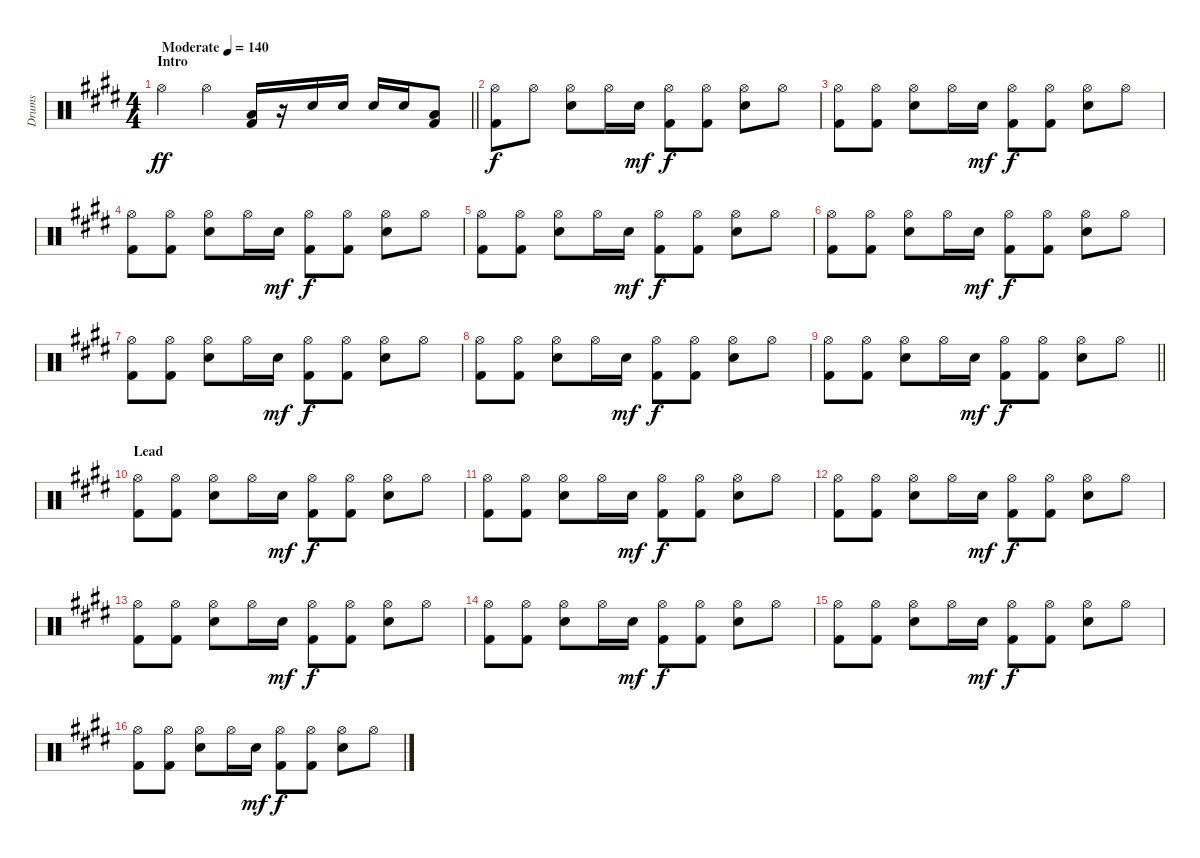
\track ("Drums" "Drums") {instrument percussion}
\staff {score}
\articulation defaults
\ts (4 4)
\section ("" "Intro")
\tempo (140 "Moderate")
\clef neutral
\barLineRight lightlight
\ks c#minor "Hi-Hat (open)".4{dy ff} "Hi-Hat (open)".4
("Low Tom (hit)" "Kick (hit) 2").16 r.16 "Snare (hit) 2".16 "Snare (hit) 2".16 "Snare (hit) 2".16 "Snare (hit) 2".16 ("Low Tom (hit)" "Kick (hit) 2").8 |
("Hi-Hat (open)" "Kick (hit) 2").8{dy f} "Hi-Hat (open)".8 ("Hi-Hat (open)" "Snare (hit) 2").8 "Hi-Hat (open)".16 "Snare (hit) 2".16{dy mf} ("Hi-Hat (open)" "Kick (hit) 2").8{dy f} ("Hi-Hat (open)" "Kick (hit) 2").8 ("Hi-Hat (open)" "Snare (hit) 2").8 "Hi-Hat (open)".8 |
("Hi-Hat (open)" "Kick (hit) 2").8 ("Hi-Hat (open)" "Kick (hit) 2").8 ("Hi-Hat (open)" "Snare (hit) 2").8 "Hi-Hat (open)".16 "Snare (hit) 2".16{dy mf} ("Hi-Hat (open)" "Kick (hit) 2").8{dy f} ("Hi-Hat (open)" "Kick (hit) 2").8 ("Hi-Hat (open)" "Snare (hit) 2").8 "Hi-Hat (open)".8 |
("Hi-Hat (open)" "Kick (hit) 2").8 ("Hi-Hat (open)" "Kick (hit) 2").8 ("Hi-Hat (open)" "Snare (hit) 2").8 "Hi-Hat (open)".16 "Snare (hit) 2".16{dy mf} ("Hi-Hat (open)" "Kick (hit) 2").8{dy f} ("Hi-Hat (open)" "Kick (hit) 2").8 ("Hi-Hat (open)" "Snare (hit) 2").8 "Hi-Hat (open)".8 |
("Hi-Hat (open)" "Kick (hit) 2").8 ("Hi-Hat (open)" "Kick (hit) 2").8 ("Hi-Hat (open)" "Snare (hit) 2").8 "Hi-Hat (open)".16 "Snare (hit) 2".16{dy mf} ("Hi-Hat (open)" "Kick (hit) 2").8{dy f} ("Hi-Hat (open)" "Kick (hit) 2").8 ("Hi-Hat (open)" "Snare (hit) 2").8 "Hi-Hat (open)".8 |
("Hi-Hat (open)" "Kick (hit) 2").8 ("Hi-Hat (open)" "Kick (hit) 2").8 ("Hi-Hat (open)" "Snare (hit) 2").8 "Hi-Hat (open)".16 "Snare (hit) 2".16{dy mf} ("Hi-Hat (open)" "Kick (hit) 2").8{dy f} ("Hi-Hat (open)" "Kick (hit) 2").8 ("Hi-Hat (open)" "Snare (hit) 2").8 "Hi-Hat (open)".8 |
("Hi-Hat (open)" "Kick (hit) 2").8 ("Hi-Hat (open)" "Kick (hit) 2").8 ("Hi-Hat (open)" "Snare (hit) 2").8 "Hi-Hat (open)".16 "Snare (hit) 2".16{dy mf} ("Hi-Hat (open)" "Kick (hit) 2").8{dy f} ("Hi-Hat (open)" "Kick (hit) 2").8 ("Hi-Hat (open)" "Snare (hit) 2").8 "Hi-Hat (open)".8 |
("Hi-Hat (open)" "Kick (hit) 2").8 ("Hi-Hat (open)" "Kick (hit) 2").8 ("Hi-Hat (open)" "Snare (hit) 2").8 "Hi-Hat (open)".16 "Snare (hit) 2".16{dy mf} ("Hi-Hat (open)" "Kick (hit) 2").8{dy f} ("Hi-Hat (open)" "Kick (hit) 2").8 ("Hi-Hat (open)" "Snare (hit) 2").8 "Hi-Hat (open)".8 |
\barLineRight lightlight
("Hi-Hat (open)" "Kick (hit) 2").8 ("Hi-Hat (open)" "Kick (hit) 2").8 ("Hi-Hat (open)" "Snare (hit) 2").8 "Hi-Hat (open)".16 "Snare (hit) 2".16{dy mf} ("Hi-Hat (open)" "Kick (hit) 2").8{dy f} ("Hi-Hat (open)" "Kick (hit) 2").8 ("Hi-Hat (open)" "Snare (hit) 2").8 "Hi-Hat (open)".8 |
\section ("" "Lead")
("Hi-Hat (open)" "Kick (hit) 2").8 ("Hi-Hat (open)" "Kick (hit) 2").8 ("Hi-Hat (open)" "Snare (hit) 2").8 "Hi-Hat (open)".16 "Snare (hit) 2".16{dy mf} ("Hi-Hat (open)" "Kick (hit) 2").8{dy f} ("Hi-Hat (open)" "Kick (hit) 2").8 ("Hi-Hat (open)" "Snare (hit) 2").8 "Hi-Hat (open)".8 |
("Hi-Hat (open)" "Kick (hit) 2").8 ("Hi-Hat (open)" "Kick (hit) 2").8 ("Hi-Hat (open)" "Snare (hit) 2").8 "Hi-Hat (open)".16 "Snare (hit) 2".16{dy mf} ("Hi-Hat (open)" "Kick (hit) 2").8{dy f} ("Hi-Hat (open)" "Kick (hit) 2").8 ("Hi-Hat (open)" "Snare (hit) 2").8 "Hi-Hat (open)".8 |
("Hi-Hat (open)" "Kick (hit) 2").8 ("Hi-Hat (open)" "Kick (hit) 2").8 ("Hi-Hat (open)" "Snare (hit) 2").8 "Hi-Hat (open)".16 "Snare (hit) 2".16{dy mf} ("Hi-Hat (open)" "Kick (hit) 2").8{dy f} ("Hi-Hat (open)" "Kick (hit) 2").8 ("Hi-Hat (open)" "Snare (hit) 2").8 "Hi-Hat (open)".8 |
("Hi-Hat (open)" "Kick (hit) 2").8 ("Hi-Hat (open)" "Kick (hit) 2").8 ("Hi-Hat (open)" "Snare (hit) 2").8 "Hi-Hat (open)".16 "Snare (hit) 2".16{dy mf} ("Hi-Hat (open)" "Kick (hit) 2").8{dy f} ("Hi-Hat (open)" "Kick (hit) 2").8 ("Hi-Hat (open)" "Snare (hit) 2").8 "Hi-Hat (open)".8 |
("Hi-Hat (open)" "Kick (hit) 2").8 ("Hi-Hat (open)" "Kick (hit) 2").8 ("Hi-Hat (open)" "Snare (hit) 2").8 "Hi-Hat (open)".16 "Snare (hit) 2".16{dy mf} ("Hi-Hat (open)" "Kick (hit) 2").8{dy f} ("Hi-Hat (open)" "Kick (hit) 2").8 ("Hi-Hat (open)" "Snare (hit) 2").8 "Hi-Hat (open)".8 |
("Hi-Hat (open)" "Kick (hit) 2").8 ("Hi-Hat (open)" "Kick (hit) 2").8 ("Hi-Hat (open)" "Snare (hit) 2").8 "Hi-Hat (open)".16 "Snare (hit) 2".16{dy mf} ("Hi-Hat (open)" "Kick (hit) 2").8{dy f} ("Hi-Hat (open)" "Kick (hit) 2").8 ("Hi-Hat (open)" "Snare (hit) 2").8 "Hi-Hat (open)".8 |
("Hi-Hat (open)" "Kick (hit) 2").8 ("Hi-Hat (open)" "Kick (hit) 2").8 ("Hi-Hat (open)" "Snare (hit) 2").8 "Hi-Hat (open)".16 "Snare (hit) 2".16{dy mf} ("Hi-Hat (open)" "Kick (hit) 2").8{dy f} ("Hi-Hat (open)" "Kick (hit) 2").8 ("Hi-Hat (open)" "Snare (hit) 2").8 "Hi-Hat (open)".8
